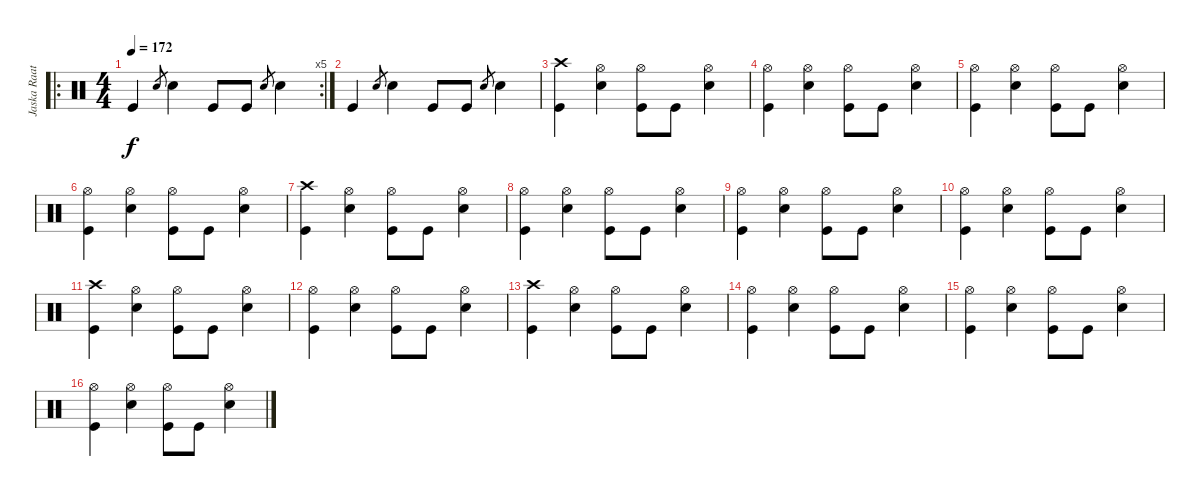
\track ("Jaska Raatikainen" "Jaska Raat") {instrument percussion}
\staff {score}
\articulation defaults
\ro
\rc 5
\ts (4 4)
\tempo 172
\clef neutral
\ks c "Kick (hit)".4{dy f} "Snare (hit) 2".8{gr} "Snare (hit) 2".4 "Kick (hit)".8 "Kick (hit)".8 "Snare (hit) 2".8{gr} "Snare (hit) 2".4
|
"Kick (hit)".4 "Snare (hit) 2".8{gr} "Snare (hit) 2".4 "Kick (hit)".8 "Kick (hit)".8 "Snare (hit) 2".8{gr} "Snare (hit) 2".4 |
("Crash high (hit)" "Kick (hit)").4 ("Hi-Hat (open)" "Snare (hit) 2").4 ("Hi-Hat (open)" "Kick (hit)").8 "Kick (hit)".8 ("Hi-Hat (open)" "Snare (hit) 2").4 |
("Hi-Hat (open)" "Kick (hit)").4 ("Hi-Hat (open)" "Snare (hit) 2").4 ("Hi-Hat (open)" "Kick (hit)").8 "Kick (hit)".8 ("Hi-Hat (open)" "Snare (hit) 2").4 |
("Hi-Hat (open)" "Kick (hit)").4 ("Hi-Hat (open)" "Snare (hit) 2").4 ("Hi-Hat (open)" "Kick (hit)").8 "Kick (hit)".8 ("Hi-Hat (open)" "Snare (hit) 2").4 |
("Hi-Hat (open)" "Kick (hit)").4 ("Hi-Hat (open)" "Snare (hit) 2").4 ("Hi-Hat (open)" "Kick (hit)").8 "Kick (hit)".8 ("Hi-Hat (open)" "Snare (hit) 2").4 |
("Crash high (hit)" "Kick (hit)").4 ("Hi-Hat (open)" "Snare (hit) 2").4 ("Hi-Hat (open)" "Kick (hit)").8 "Kick (hit)".8 ("Hi-Hat (open)" "Snare (hit) 2").4 |
("Hi-Hat (open)" "Kick (hit)").4 ("Hi-Hat (open)" "Snare (hit) 2").4 ("Hi-Hat (open)" "Kick (hit)").8 "Kick (hit)".8 ("Hi-Hat (open)" "Snare (hit) 2").4 |
("Hi-Hat (open)" "Kick (hit)").4 ("Hi-Hat (open)" "Snare (hit) 2").4 ("Hi-Hat (open)" "Kick (hit)").8 "Kick (hit)".8 ("Hi-Hat (open)" "Snare (hit) 2").4 |
("Hi-Hat (open)" "Kick (hit)").4 ("Hi-Hat (open)" "Snare (hit) 2").4 ("Hi-Hat (open)" "Kick (hit)").8 "Kick (hit)".8 ("Hi-Hat (open)" "Snare (hit) 2").4 |
("Crash high (hit)" "Kick (hit)").4 ("Hi-Hat (open)" "Snare (hit) 2").4 ("Hi-Hat (open)" "Kick (hit)").8 "Kick (hit)".8 ("Hi-Hat (open)" "Snare (hit) 2").4 |
("Hi-Hat (open)" "Kick (hit)").4 ("Hi-Hat (open)" "Snare (hit) 2").4 ("Hi-Hat (open)" "Kick (hit)").8 "Kick (hit)".8 ("Hi-Hat (open)" "Snare (hit) 2").4 |
("Crash high (hit)" "Kick (hit)").4 ("Hi-Hat (open)" "Snare (hit) 2").4 ("Hi-Hat (open)" "Kick (hit)").8 "Kick (hit)".8 ("Hi-Hat (open)" "Snare (hit) 2").4 |
("Hi-Hat (open)" "Kick (hit)").4 ("Hi-Hat (open)" "Snare (hit) 2").4 ("Hi-Hat (open)" "Kick (hit)").8 "Kick (hit)".8 ("Hi-Hat (open)" "Snare (hit) 2").4 |
("Hi-Hat (open)" "Kick (hit)").4 ("Hi-Hat (open)" "Snare (hit) 2").4 ("Hi-Hat (open)" "Kick (hit)").8 "Kick (hit)".8 ("Hi-Hat (open)" "Snare (hit) 2").4 |
("Hi-Hat (open)" "Kick (hit)").4 ("Hi-Hat (open)" "Snare (hit) 2").4 ("Hi-Hat (open)" "Kick (hit)").8 "Kick (hit)".8 ("Hi-Hat (open)" "Snare (hit) 2").4
